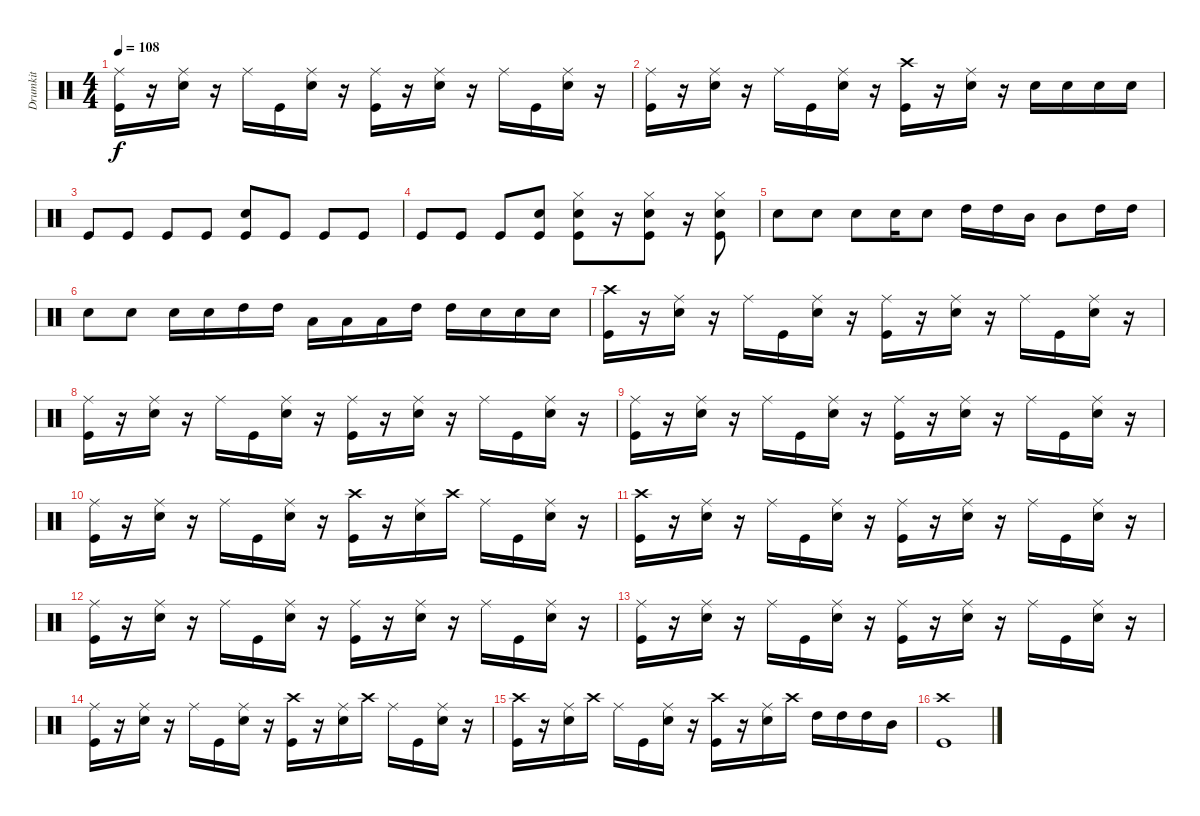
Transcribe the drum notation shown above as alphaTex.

\track ("Drumkit" "Drumkit") {instrument percussion}
\staff {score}
\articulation defaults
\ts (4 4)
\tempo 108
\clef neutral
\ks c
("Kick (hit)" "Ride (middle)").16{dy f} r.16 ("Snare (hit) 2" "Ride (middle)").16 r.16 "Ride (middle)".16 "Kick (hit)".16 ("Snare (hit) 2" "Ride (middle)").16 r.16 ("Kick (hit)" "Ride (middle)").16 r.16 ("Snare (hit) 2" "Ride (middle)").16 r.16 "Ride (middle)".16 "Kick (hit)".16 ("Snare (hit) 2" "Ride (middle)").16 r.16 |
("Kick (hit)" "Ride (middle)").16 r.16 ("Snare (hit) 2" "Ride (middle)").16 r.16 "Ride (middle)".16 "Kick (hit)".16 ("Snare (hit) 2" "Ride (middle)").16 r.16 ("Kick (hit)" "Crash high (hit)").16 r.16 ("Snare (hit) 2" "Ride (middle)").16 r.16 "Snare (hit) 2".16 "Snare (hit) 2".16 "Snare (hit) 2".16 "Snare (hit) 2".16 |
"Kick (hit)".8 "Kick (hit)".8 "Kick (hit)".8 "Kick (hit)".8 ("Snare (hit) 2" "Kick (hit)").8 "Kick (hit)".8 "Kick (hit)".8 "Kick (hit)".8 |
"Kick (hit)".8 "Kick (hit)".8 "Kick (hit)".8 ("Snare (hit) 2" "Kick (hit)").8 ("Snare (hit) 2" "Kick (hit)" "Hi-Hat (closed)").8 r.16 ("Snare (hit) 2" "Kick (hit)" "Hi-Hat (closed)").8 r.16 ("Snare (hit) 2" "Kick (hit)" "Hi-Hat (closed)").8 |
"Snare (hit) 2".8 "Snare (hit) 2".8 "Snare (hit) 2".8 "Snare (hit) 2".16 "Snare (hit) 2".8 "High Tom (hit)".16 "High Tom (hit)".16 "Mid Tom (hit)".16 "Mid Tom (hit)".8 "High Tom (hit)".16 "High Tom (hit)".16 |
"Snare (hit) 2".8 "Snare (hit) 2".8 "Snare (hit) 2".16 "Snare (hit) 2".16 "High Tom (hit)".16 "High Tom (hit)".16 "Low Tom (hit)".16 "Low Tom (hit)".16 "Low Tom (hit)".16 "High Tom (hit)".16 "High Tom (hit)".16 "Snare (hit) 2".16 "Snare (hit) 2".16 "Snare (hit) 2".16 |
("Kick (hit)" "Crash high (hit)").16 r.16 ("Snare (hit) 2" "Ride (middle)").16 r.16 "Ride (middle)".16 "Kick (hit)".16 ("Snare (hit) 2" "Ride (middle)").16 r.16 ("Kick (hit)" "Ride (middle)").16 r.16 ("Snare (hit) 2" "Ride (middle)").16 r.16 "Ride (middle)".16 "Kick (hit)".16 ("Snare (hit) 2" "Ride (middle)").16 r.16 |
("Kick (hit)" "Ride (middle)").16 r.16 ("Snare (hit) 2" "Ride (middle)").16 r.16 "Ride (middle)".16 "Kick (hit)".16 ("Snare (hit) 2" "Ride (middle)").16 r.16 ("Kick (hit)" "Ride (middle)").16 r.16 ("Snare (hit) 2" "Ride (middle)").16 r.16 "Ride (middle)".16 "Kick (hit)".16 ("Snare (hit) 2" "Ride (middle)").16 r.16 |
("Kick (hit)" "Ride (middle)").16 r.16 ("Snare (hit) 2" "Ride (middle)").16 r.16 "Ride (middle)".16 "Kick (hit)".16 ("Snare (hit) 2" "Ride (middle)").16 r.16 ("Kick (hit)" "Ride (middle)").16 r.16 ("Snare (hit) 2" "Ride (middle)").16 r.16 "Ride (middle)".16 "Kick (hit)".16 ("Snare (hit) 2" "Ride (middle)").16 r.16 |
("Kick (hit)" "Ride (middle)").16 r.16 ("Snare (hit) 2" "Ride (middle)").16 r.16 "Ride (middle)".16 "Kick (hit)".16 ("Snare (hit) 2" "Ride (middle)").16 r.16 ("Kick (hit)" "Crash high (hit)").16 r.16 ("Snare (hit) 2" "Ride (middle)").16 "Crash high (hit)".16 "Ride (middle)".16 "Kick (hit)".16 ("Snare (hit) 2" "Ride (middle)").16 r.16 |
("Kick (hit)" "Crash high (hit)").16 r.16 ("Snare (hit) 2" "Ride (middle)").16 r.16 "Ride (middle)".16 "Kick (hit)".16 ("Snare (hit) 2" "Ride (middle)").16 r.16 ("Kick (hit)" "Ride (middle)").16 r.16 ("Snare (hit) 2" "Ride (middle)").16 r.16 "Ride (middle)".16 "Kick (hit)".16 ("Snare (hit) 2" "Ride (middle)").16 r.16 |
("Kick (hit)" "Ride (middle)").16 r.16 ("Snare (hit) 2" "Ride (middle)").16 r.16 "Ride (middle)".16 "Kick (hit)".16 ("Snare (hit) 2" "Ride (middle)").16 r.16 ("Kick (hit)" "Ride (middle)").16 r.16 ("Snare (hit) 2" "Ride (middle)").16 r.16 "Ride (middle)".16 "Kick (hit)".16 ("Snare (hit) 2" "Ride (middle)").16 r.16 |
("Kick (hit)" "Ride (middle)").16 r.16 ("Snare (hit) 2" "Ride (middle)").16 r.16 "Ride (middle)".16 "Kick (hit)".16 ("Snare (hit) 2" "Ride (middle)").16 r.16 ("Kick (hit)" "Ride (middle)").16 r.16 ("Snare (hit) 2" "Ride (middle)").16 r.16 "Ride (middle)".16 "Kick (hit)".16 ("Snare (hit) 2" "Ride (middle)").16 r.16 |
("Kick (hit)" "Ride (middle)").16 r.16 ("Snare (hit) 2" "Ride (middle)").16 r.16 "Ride (middle)".16 "Kick (hit)".16 ("Snare (hit) 2" "Ride (middle)").16 r.16 ("Kick (hit)" "Crash high (hit)").16 r.16 ("Snare (hit) 2" "Ride (middle)").16 "Crash high (hit)".16 "Ride (middle)".16 "Kick (hit)".16 ("Snare (hit) 2" "Ride (middle)").16 r.16 |
("Kick (hit)" "Crash high (hit)").16 r.16 ("Snare (hit) 2" "Ride (middle)").16 "Crash high (hit)".16 "Ride (middle)".16 "Kick (hit)".16 ("Snare (hit) 2" "Ride (middle)").16 r.16 ("Kick (hit)" "Crash high (hit)").16 r.16 ("Snare (hit) 2" "Ride (middle)").16 "Crash high (hit)".16 "High Tom (hit)".16 "High Tom (hit)".16 "High Tom (hit)".16 "Mid Tom (hit)".16 |
("Kick (hit)" "Crash high (hit)").1
